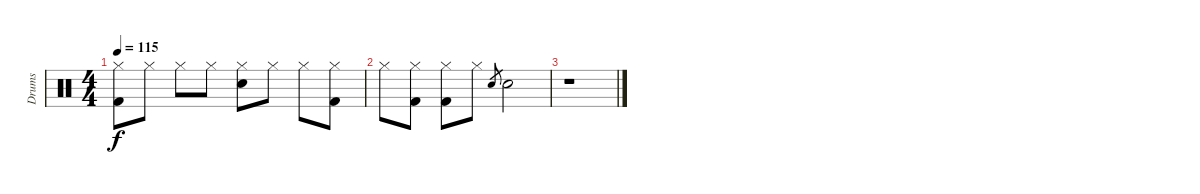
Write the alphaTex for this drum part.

\track ("Drums" "Drums") {instrument percussion}
\staff {score}
\articulation defaults
\ts (4 4)
\tempo 115
\clef neutral
\ks c
("Hi-Hat (closed)" "Kick (hit) 2").8{dy f} "Hi-Hat (closed)".8 "Hi-Hat (closed)".8 "Hi-Hat (closed)".8 ("Hi-Hat (closed)" "Snare (hit) 2").8 "Hi-Hat (closed)".8 "Hi-Hat (closed)".8 ("Hi-Hat (closed)" "Kick (hit) 2").8 |
"Hi-Hat (closed)".8 ("Hi-Hat (closed)" "Kick (hit) 2").8 ("Hi-Hat (closed)" "Kick (hit) 2").8 "Hi-Hat (closed)".8 "Snare (hit) 2".8{gr} "Snare (hit) 2".2 |
r.1
